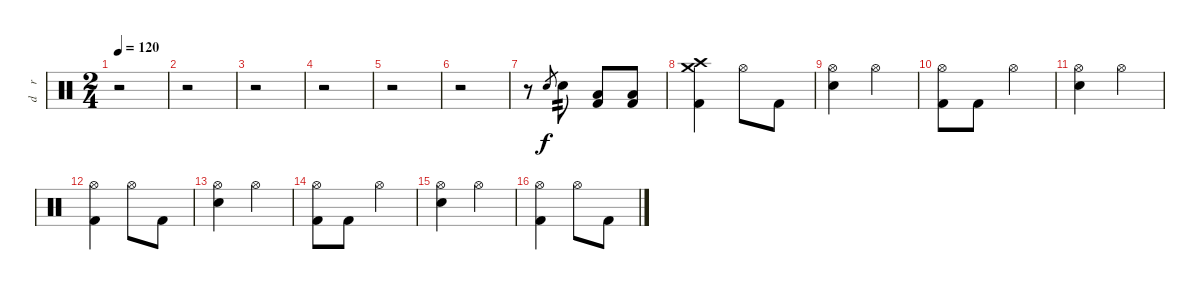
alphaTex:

\track ("d    r    u  m  s" "d    r    ") {instrument percussion}
\staff {score}
\articulation defaults
\ts (2 4)
\tempo 120
\clef neutral
\ks c
r.2{dy f} |
r.2 |
r.2 |
r.2 |
r.2 |
r.2 |
r.8 "Snare (hit) 2".8{gr} "Snare (hit) 2".8{tp 2} ("Low Floor Tom (hit)" "Kick (hit) 2").8 ("Low Floor Tom (hit)" "Kick (hit) 2").8 |
("Crash high (hit)" "Crash medium (hit)" "Kick (hit) 2").4 "Hi-Hat (open)".8 "Kick (hit) 2".8 |
("Hi-Hat (open)" "Snare (hit) 2").4 "Hi-Hat (open)".4 |
("Hi-Hat (open)" "Kick (hit) 2").8 "Kick (hit) 2".8 "Hi-Hat (open)".4 |
("Hi-Hat (open)" "Snare (hit) 2").4 "Hi-Hat (open)".4 |
("Hi-Hat (open)" "Kick (hit) 2").4 "Hi-Hat (open)".8 "Kick (hit) 2".8 |
("Hi-Hat (open)" "Snare (hit) 2").4 "Hi-Hat (open)".4 |
("Hi-Hat (open)" "Kick (hit) 2").8 "Kick (hit) 2".8 "Hi-Hat (open)".4 |
("Hi-Hat (open)" "Snare (hit) 2").4 "Hi-Hat (open)".4 |
("Hi-Hat (open)" "Kick (hit) 2").4 "Hi-Hat (open)".8 "Kick (hit) 2".8
